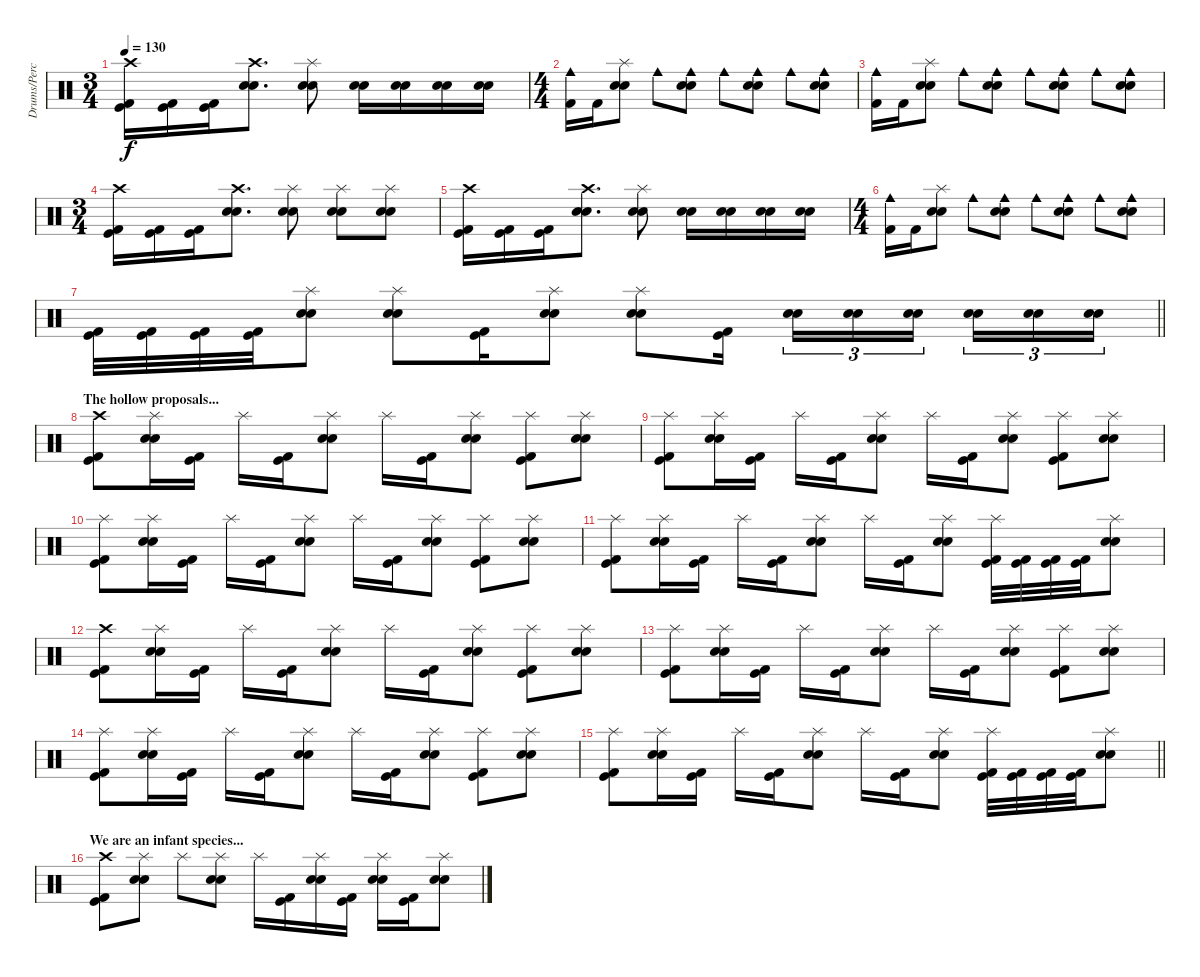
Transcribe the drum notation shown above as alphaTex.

\track ("Drums/Percussion" "Drums/Perc") {instrument percussion}
\staff {score}
\articulation defaults
\ts (3 4)
\tempo 130
\clef neutral
\ks c
("Crash high (hit)" "Kick (hit)" "Kick (hit) 2").16{dy f} ("Kick (hit)" "Kick (hit) 2").16 ("Kick (hit)" "Kick (hit) 2").16 ("Crash high (hit)" "Electric Snare (hit)" "Snare (hit) 2").8{d} ("Splash (hit)" "Electric Snare (hit)" "Snare (hit) 2").8 ("Electric Snare (hit)" "Snare (hit) 2").16 ("Electric Snare (hit)" "Snare (hit) 2").16 ("Electric Snare (hit)" "Snare (hit) 2").16 ("Electric Snare (hit)" "Snare (hit) 2").16 |
\ts (4 4)
("Cowbell medium (hit)" "Kick (hit) 2").16 "Kick (hit) 2".16 ("Splash (hit)" "Electric Snare (hit)" "Snare (hit) 2").8 "Cowbell medium (hit)".8 ("Cowbell medium (hit)" "Electric Snare (hit)" "Snare (hit) 2").8 "Cowbell medium (hit)".8 ("Cowbell medium (hit)" "Electric Snare (hit)" "Snare (hit) 2").8 "Cowbell medium (hit)".8 ("Cowbell medium (hit)" "Electric Snare (hit)" "Snare (hit) 2").8 |
("Cowbell medium (hit)" "Kick (hit) 2").16 "Kick (hit) 2".16 ("Splash (hit)" "Electric Snare (hit)" "Snare (hit) 2").8 "Cowbell medium (hit)".8 ("Cowbell medium (hit)" "Electric Snare (hit)" "Snare (hit) 2").8 "Cowbell medium (hit)".8 ("Cowbell medium (hit)" "Electric Snare (hit)" "Snare (hit) 2").8 "Cowbell medium (hit)".8 ("Cowbell medium (hit)" "Electric Snare (hit)" "Snare (hit) 2").8 |
\ts (3 4)
("Crash high (hit)" "Kick (hit)" "Kick (hit) 2").16 ("Kick (hit)" "Kick (hit) 2").16 ("Kick (hit)" "Kick (hit) 2").16 ("Crash high (hit)" "Electric Snare (hit)" "Snare (hit) 2").8{d} ("Splash (hit)" "Electric Snare (hit)" "Snare (hit) 2").8 ("Splash (hit)" "Electric Snare (hit)" "Snare (hit) 2").8 ("Splash (hit)" "Electric Snare (hit)" "Snare (hit) 2").8 |
("Crash high (hit)" "Kick (hit)" "Kick (hit) 2").16 ("Kick (hit)" "Kick (hit) 2").16 ("Kick (hit)" "Kick (hit) 2").16 ("Crash high (hit)" "Electric Snare (hit)" "Snare (hit) 2").8{d} ("Splash (hit)" "Electric Snare (hit)" "Snare (hit) 2").8 ("Electric Snare (hit)" "Snare (hit) 2").16 ("Electric Snare (hit)" "Snare (hit) 2").16 ("Electric Snare (hit)" "Snare (hit) 2").16 ("Electric Snare (hit)" "Snare (hit) 2").16 |
\ts (4 4)
("Cowbell medium (hit)" "Kick (hit) 2").16 "Kick (hit) 2".16 ("Splash (hit)" "Electric Snare (hit)" "Snare (hit) 2").8 "Cowbell medium (hit)".8 ("Cowbell medium (hit)" "Electric Snare (hit)" "Snare (hit) 2").8 "Cowbell medium (hit)".8 ("Cowbell medium (hit)" "Electric Snare (hit)" "Snare (hit) 2").8 "Cowbell medium (hit)".8 ("Cowbell medium (hit)" "Electric Snare (hit)" "Snare (hit) 2").8 |
\barLineRight lightlight
("Kick (hit)" "Kick (hit) 2").32 ("Kick (hit)" "Kick (hit) 2").32 ("Kick (hit)" "Kick (hit) 2").32 ("Kick (hit)" "Kick (hit) 2").32 ("Splash (hit)" "Electric Snare (hit)" "Snare (hit) 2").8 ("Splash (hit)" "Electric Snare (hit)" "Snare (hit) 2").8 ("Kick (hit)" "Kick (hit) 2").16 ("Splash (hit)" "Electric Snare (hit)" "Snare (hit) 2").8 ("Splash (hit)" "Electric Snare (hit)" "Snare (hit) 2").8 ("Kick (hit)" "Kick (hit) 2").16 ("Electric Snare (hit)" "Snare (hit) 2").16{tu (3 2)} ("Electric Snare (hit)" "Snare (hit) 2").16{tu (3 2)} ("Electric Snare (hit)" "Snare (hit) 2").16{tu (3 2) beam splitsecondary} ("Electric Snare (hit)" "Snare (hit) 2").16{tu (3 2)} ("Electric Snare (hit)" "Snare (hit) 2").16{tu (3 2)} ("Electric Snare (hit)" "Snare (hit) 2").16{tu (3 2)} |
\section ("" "The hollow proposals...")
("Crash high (hit)" "Kick (hit)" "Kick (hit) 2").8 ("Splash (hit)" "Electric Snare (hit)" "Snare (hit) 2").16 ("Kick (hit)" "Kick (hit) 2").16 "Splash (hit)".16 ("Kick (hit)" "Kick (hit) 2").16 ("Splash (hit)" "Electric Snare (hit)" "Snare (hit) 2").8 "Splash (hit)".16 ("Kick (hit)" "Kick (hit) 2").16 ("Splash (hit)" "Electric Snare (hit)" "Snare (hit) 2").8 ("Splash (hit)" "Kick (hit)" "Kick (hit) 2").8 ("Splash (hit)" "Electric Snare (hit)" "Snare (hit) 2").8 |
("Splash (hit)" "Kick (hit)" "Kick (hit) 2").8 ("Splash (hit)" "Electric Snare (hit)" "Snare (hit) 2").16 ("Kick (hit)" "Kick (hit) 2").16 "Splash (hit)".16 ("Kick (hit)" "Kick (hit) 2").16 ("Splash (hit)" "Electric Snare (hit)" "Snare (hit) 2").8 "Splash (hit)".16 ("Kick (hit)" "Kick (hit) 2").16 ("Splash (hit)" "Electric Snare (hit)" "Snare (hit) 2").8 ("Splash (hit)" "Kick (hit)" "Kick (hit) 2").8 ("Splash (hit)" "Electric Snare (hit)" "Snare (hit) 2").8 |
("Splash (hit)" "Kick (hit)" "Kick (hit) 2").8 ("Splash (hit)" "Electric Snare (hit)" "Snare (hit) 2").16 ("Kick (hit)" "Kick (hit) 2").16 "Splash (hit)".16 ("Kick (hit)" "Kick (hit) 2").16 ("Splash (hit)" "Electric Snare (hit)" "Snare (hit) 2").8 "Splash (hit)".16 ("Kick (hit)" "Kick (hit) 2").16 ("Splash (hit)" "Electric Snare (hit)" "Snare (hit) 2").8 ("Splash (hit)" "Kick (hit)" "Kick (hit) 2").8 ("Splash (hit)" "Electric Snare (hit)" "Snare (hit) 2").8 |
("Splash (hit)" "Kick (hit)" "Kick (hit) 2").8 ("Splash (hit)" "Electric Snare (hit)" "Snare (hit) 2").16 ("Kick (hit)" "Kick (hit) 2").16 "Splash (hit)".16 ("Kick (hit)" "Kick (hit) 2").16 ("Splash (hit)" "Electric Snare (hit)" "Snare (hit) 2").8 "Splash (hit)".16 ("Kick (hit)" "Kick (hit) 2").16 ("Splash (hit)" "Electric Snare (hit)" "Snare (hit) 2").8 ("Splash (hit)" "Kick (hit)" "Kick (hit) 2").32 ("Kick (hit)" "Kick (hit) 2").32 ("Kick (hit)" "Kick (hit) 2").32 ("Kick (hit)" "Kick (hit) 2").32 ("Splash (hit)" "Electric Snare (hit)" "Snare (hit) 2").8 |
("Crash high (hit)" "Kick (hit)" "Kick (hit) 2").8 ("Splash (hit)" "Electric Snare (hit)" "Snare (hit) 2").16 ("Kick (hit)" "Kick (hit) 2").16 "Splash (hit)".16 ("Kick (hit)" "Kick (hit) 2").16 ("Splash (hit)" "Electric Snare (hit)" "Snare (hit) 2").8 "Splash (hit)".16 ("Kick (hit)" "Kick (hit) 2").16 ("Splash (hit)" "Electric Snare (hit)" "Snare (hit) 2").8 ("Splash (hit)" "Kick (hit)" "Kick (hit) 2").8 ("Splash (hit)" "Electric Snare (hit)" "Snare (hit) 2").8 |
("Splash (hit)" "Kick (hit)" "Kick (hit) 2").8 ("Splash (hit)" "Electric Snare (hit)" "Snare (hit) 2").16 ("Kick (hit)" "Kick (hit) 2").16 "Splash (hit)".16 ("Kick (hit)" "Kick (hit) 2").16 ("Splash (hit)" "Electric Snare (hit)" "Snare (hit) 2").8 "Splash (hit)".16 ("Kick (hit)" "Kick (hit) 2").16 ("Splash (hit)" "Electric Snare (hit)" "Snare (hit) 2").8 ("Splash (hit)" "Kick (hit)" "Kick (hit) 2").8 ("Splash (hit)" "Electric Snare (hit)" "Snare (hit) 2").8 |
("Splash (hit)" "Kick (hit)" "Kick (hit) 2").8 ("Splash (hit)" "Electric Snare (hit)" "Snare (hit) 2").16 ("Kick (hit)" "Kick (hit) 2").16 "Splash (hit)".16 ("Kick (hit)" "Kick (hit) 2").16 ("Splash (hit)" "Electric Snare (hit)" "Snare (hit) 2").8 "Splash (hit)".16 ("Kick (hit)" "Kick (hit) 2").16 ("Splash (hit)" "Electric Snare (hit)" "Snare (hit) 2").8 ("Splash (hit)" "Kick (hit)" "Kick (hit) 2").8 ("Splash (hit)" "Electric Snare (hit)" "Snare (hit) 2").8 |
\barLineRight lightlight
("Splash (hit)" "Kick (hit)" "Kick (hit) 2").8 ("Splash (hit)" "Electric Snare (hit)" "Snare (hit) 2").16 ("Kick (hit)" "Kick (hit) 2").16 "Splash (hit)".16 ("Kick (hit)" "Kick (hit) 2").16 ("Splash (hit)" "Electric Snare (hit)" "Snare (hit) 2").8 "Splash (hit)".16 ("Kick (hit)" "Kick (hit) 2").16 ("Splash (hit)" "Electric Snare (hit)" "Snare (hit) 2").8 ("Splash (hit)" "Kick (hit)" "Kick (hit) 2").32 ("Kick (hit)" "Kick (hit) 2").32 ("Kick (hit)" "Kick (hit) 2").32 ("Kick (hit)" "Kick (hit) 2").32 ("Splash (hit)" "Electric Snare (hit)" "Snare (hit) 2").8 |
\section ("" "We are an infant species...")
("Crash high (hit)" "Kick (hit)" "Kick (hit) 2").8 ("Splash (hit)" "Electric Snare (hit)" "Snare (hit) 2").8 "Splash (hit)".8 ("Splash (hit)" "Electric Snare (hit)" "Snare (hit) 2").8 "Splash (hit)".16 ("Kick (hit)" "Kick (hit) 2").16 ("Splash (hit)" "Electric Snare (hit)" "Snare (hit) 2").16 ("Kick (hit)" "Kick (hit) 2").16 ("Splash (hit)" "Electric Snare (hit)" "Snare (hit) 2").16 ("Kick (hit)" "Kick (hit) 2").16 ("Splash (hit)" "Electric Snare (hit)" "Snare (hit) 2").8
